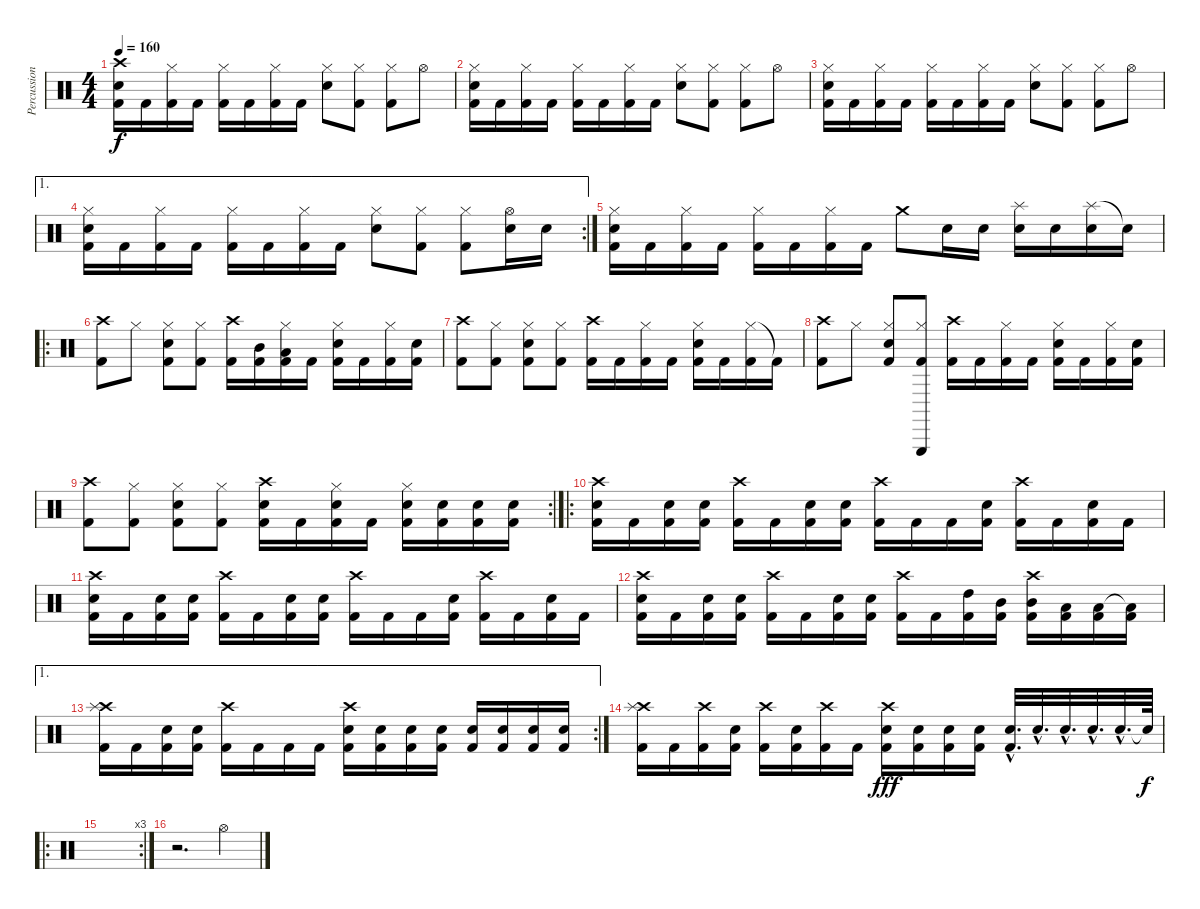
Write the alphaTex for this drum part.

\track ("Percussion" "Percussion") {instrument percussion}
\staff {score}
\articulation defaults
\ts (4 4)
\tempo 160
\clef neutral
\ks c
("Crash high (hit)" "Electric Snare (hit)" "Kick (hit) 2").16{dy f} "Kick (hit) 2".16 ("Hi-Hat (closed)" "Kick (hit) 2").16 "Kick (hit) 2".16 ("Hi-Hat (closed)" "Kick (hit) 2").16 "Kick (hit) 2".16 ("Hi-Hat (closed)" "Kick (hit) 2").16 "Kick (hit) 2".16 ("Hi-Hat (closed)" "Electric Snare (hit)").8 ("Hi-Hat (closed)" "Kick (hit) 2").8 ("Hi-Hat (closed)" "Kick (hit) 2").8 "Hi-Hat (open)".8 |
("Hi-Hat (closed)" "Electric Snare (hit)" "Kick (hit) 2").16 "Kick (hit) 2".16 ("Hi-Hat (closed)" "Kick (hit) 2").16 "Kick (hit) 2".16 ("Hi-Hat (closed)" "Kick (hit) 2").16 "Kick (hit) 2".16 ("Hi-Hat (closed)" "Kick (hit) 2").16 "Kick (hit) 2".16 ("Hi-Hat (closed)" "Electric Snare (hit)").8 ("Hi-Hat (closed)" "Kick (hit) 2").8 ("Hi-Hat (closed)" "Kick (hit) 2").8 "Hi-Hat (open)".8 |
("Hi-Hat (closed)" "Electric Snare (hit)" "Kick (hit) 2").16 "Kick (hit) 2".16 ("Hi-Hat (closed)" "Kick (hit) 2").16 "Kick (hit) 2".16 ("Hi-Hat (closed)" "Kick (hit) 2").16 "Kick (hit) 2".16 ("Hi-Hat (closed)" "Kick (hit) 2").16 "Kick (hit) 2".16 ("Hi-Hat (closed)" "Electric Snare (hit)").8 ("Hi-Hat (closed)" "Kick (hit) 2").8 ("Hi-Hat (closed)" "Kick (hit) 2").8 "Hi-Hat (open)".8 |
\ae 1
\rc 2
("Hi-Hat (closed)" "Electric Snare (hit)" "Kick (hit) 2").16 "Kick (hit) 2".16 ("Hi-Hat (closed)" "Kick (hit) 2").16 "Kick (hit) 2".16 ("Hi-Hat (closed)" "Kick (hit) 2").16 "Kick (hit) 2".16 ("Hi-Hat (closed)" "Kick (hit) 2").16 "Kick (hit) 2".16 ("Hi-Hat (closed)" "Electric Snare (hit)").8 ("Hi-Hat (closed)" "Kick (hit) 2").8 ("Hi-Hat (closed)" "Kick (hit) 2").8 ("Hi-Hat (open)" "Electric Snare (hit)").16 "Electric Snare (hit)".16 |
("Hi-Hat (closed)" "Electric Snare (hit)" "Kick (hit) 2").16 "Kick (hit) 2".16 ("Hi-Hat (closed)" "Kick (hit) 2").16 "Kick (hit) 2".16 ("Hi-Hat (closed)" "Kick (hit) 2").16 "Kick (hit) 2".16 ("Hi-Hat (closed)" "Kick (hit) 2").16 "Kick (hit) 2".16 "Crash medium (hit)".8 "Electric Snare (hit)".16 "Electric Snare (hit)".16 ("Splash (hit)" "Electric Snare (hit)").16 "Electric Snare (hit)".16 ("Splash (hit)" "Electric Snare (hit)").16 "Snare (hit)"{t}.16 |
\ro
("Crash high (hit)" "Kick (hit) 2").8 "Hi-Hat (closed)".8 ("Hi-Hat (closed)" "Electric Snare (hit)" "Kick (hit) 2").8 ("Hi-Hat (closed)" "Kick (hit) 2").8 ("Crash high (hit)" "Kick (hit) 2").16 ("Mid Tom (hit)" "Kick (hit) 2").16 ("Hi-Hat (closed)" "Low Tom (hit)" "Kick (hit) 2").16 "Kick (hit) 2".16 ("Hi-Hat (closed)" "Electric Snare (hit)" "Kick (hit) 2").16 "Kick (hit) 2".16 ("Hi-Hat (closed)" "Kick (hit) 2").16 ("Electric Snare (hit)" "Kick (hit) 2").16 |
("Crash high (hit)" "Kick (hit) 2").8 ("Hi-Hat (closed)" "Kick (hit) 2").8 ("Hi-Hat (closed)" "Electric Snare (hit)" "Kick (hit) 2").8 ("Hi-Hat (closed)" "Kick (hit) 2").8 ("Crash high (hit)" "Kick (hit) 2").16 "Kick (hit) 2".16 ("Hi-Hat (closed)" "Kick (hit) 2").16 "Kick (hit) 2".16 ("Hi-Hat (closed)" "Electric Snare (hit)" "Kick (hit) 2").16 "Kick (hit) 2".16 ("Hi-Hat (closed)" "Kick (hit) 2").16 "Kick (hit) 2"{t}.16 |
("Crash high (hit)" "Kick (hit) 2").8 "Hi-Hat (closed)".8 ("Hi-Hat (closed)" "Electric Snare (hit)" "Kick (hit) 2").8 ("Hi-Hat (closed)" "Triangle (hit)" "Kick (hit) 2").8 ("Crash high (hit)" "Kick (hit) 2").16 "Kick (hit) 2".16 ("Hi-Hat (closed)" "Kick (hit) 2").16 "Kick (hit) 2".16 ("Hi-Hat (closed)" "Electric Snare (hit)" "Kick (hit) 2").16 "Kick (hit) 2".16 ("Hi-Hat (closed)" "Kick (hit) 2").16 ("Electric Snare (hit)" "Kick (hit) 2").16 |
\rc 2
("Crash high (hit)" "Kick (hit) 2").8 ("Hi-Hat (closed)" "Kick (hit) 2").8 ("Hi-Hat (closed)" "Electric Snare (hit)" "Kick (hit) 2").8 ("Hi-Hat (closed)" "Kick (hit) 2").8 ("Crash high (hit)" "Electric Snare (hit)" "Kick (hit) 2").16 "Kick (hit) 2".16 ("Hi-Hat (closed)" "Electric Snare (hit)" "Kick (hit) 2").16 "Kick (hit) 2".16 ("Hi-Hat (closed)" "Electric Snare (hit)" "Kick (hit) 2").16 ("Electric Snare (hit)" "Kick (hit) 2").16 ("Electric Snare (hit)" "Kick (hit) 2").16 ("Electric Snare (hit)" "Kick (hit) 2").16 |
\ro
("Crash high (hit)" "Electric Snare (hit)" "Kick (hit) 2").16 "Kick (hit) 2".16 ("Electric Snare (hit)" "Kick (hit) 2").16 ("Electric Snare (hit)" "Kick (hit) 2").16 ("Crash high (hit)" "Kick (hit) 2").16 "Kick (hit) 2".16 ("Electric Snare (hit)" "Kick (hit) 2").16 ("Electric Snare (hit)" "Kick (hit) 2").16 ("Crash high (hit)" "Kick (hit) 2").16 "Kick (hit) 2".16 "Kick (hit) 2".16 ("Electric Snare (hit)" "Kick (hit) 2").16 ("Crash high (hit)" "Kick (hit) 2").16 "Kick (hit) 2".16 ("Electric Snare (hit)" "Kick (hit) 2").16 "Kick (hit) 2".16 |
("Crash high (hit)" "Electric Snare (hit)" "Kick (hit) 2").16 "Kick (hit) 2".16 ("Electric Snare (hit)" "Kick (hit) 2").16 ("Electric Snare (hit)" "Kick (hit) 2").16 ("Crash high (hit)" "Kick (hit) 2").16 "Kick (hit) 2".16 ("Electric Snare (hit)" "Kick (hit) 2").16 ("Electric Snare (hit)" "Kick (hit) 2").16 ("Crash high (hit)" "Kick (hit) 2").16 "Kick (hit) 2".16 "Kick (hit) 2".16 ("Electric Snare (hit)" "Kick (hit) 2").16 ("Crash high (hit)" "Kick (hit) 2").16 "Kick (hit) 2".16 ("Electric Snare (hit)" "Kick (hit) 2").16 "Kick (hit) 2".16 |
("Crash high (hit)" "Electric Snare (hit)" "Kick (hit) 2").16 "Kick (hit) 2".16 ("Electric Snare (hit)" "Kick (hit) 2").16 ("Electric Snare (hit)" "Kick (hit) 2").16 ("Crash high (hit)" "Kick (hit) 2").16 "Kick (hit) 2".16 ("Electric Snare (hit)" "Kick (hit) 2").16 ("Electric Snare (hit)" "Kick (hit) 2").16 ("Crash high (hit)" "Kick (hit) 2").16 "Kick (hit) 2".16 ("High Tom (hit)" "Kick (hit) 2").16 ("Mid Tom (hit)" "Kick (hit) 2").16 ("Crash high (hit)" "Mid Tom (hit)" "Kick (hit) 2").16 ("Low Tom (hit)" "Kick (hit) 2").16 ("Low Tom (hit)" "Kick (hit) 2").16 ("Low Tom (hit)"{t} "Kick (hit) 2").16 |
\ae 1
\rc 2
("Crash high (hit)" "Splash (hit)" "Kick (hit) 2").16 "Kick (hit) 2".16 ("Electric Snare (hit)" "Kick (hit) 2").16 ("Electric Snare (hit)" "Kick (hit) 2").16 ("Crash high (hit)" "Kick (hit) 2").16 "Kick (hit) 2".16 "Kick (hit) 2".16 "Kick (hit) 2".16 ("Crash high (hit)" "Electric Snare (hit)" "Kick (hit) 2").16 ("Electric Snare (hit)" "Kick (hit) 2").16 ("Electric Snare (hit)" "Kick (hit) 2").16 ("Electric Snare (hit)" "Kick (hit) 2").16 ("Electric Snare (hit)" "Kick (hit) 2").16 ("Electric Snare (hit)" "Kick (hit) 2").16 ("Electric Snare (hit)" "Kick (hit) 2").16 ("Electric Snare (hit)" "Kick (hit) 2").16 |
("Crash high (hit)" "Splash (hit)" "Kick (hit) 2").16 "Kick (hit) 2".16 ("Crash high (hit)" "Kick (hit) 2").16 ("Electric Snare (hit)" "Kick (hit) 2").16 ("Crash high (hit)" "Kick (hit) 2").16 ("Electric Snare (hit)" "Kick (hit) 2").16 ("Crash high (hit)" "Kick (hit) 2").16 "Kick (hit) 2".16 ("Crash high (hit)" "Electric Snare (hit)" "Kick (hit) 2").16{dy fff} ("Electric Snare (hit)" "Kick (hit) 2").16 ("Electric Snare (hit)" "Kick (hit) 2").16 ("Electric Snare (hit)" "Kick (hit) 2").16 ("Electric Snare (hit)"{hac} "Kick (hit) 2"{hac}).32{d} "Electric Snare (hit)"{hac}.32{d} "Electric Snare (hit)"{hac}.32{d} "Electric Snare (hit)"{hac}.32{d} "Electric Snare (hit)"{hac}.32{d} "Snare (hit)"{t}.64{dy f} |
\ro
\rc 3
|
r.2{d} "Hi-Hat (open)".4
